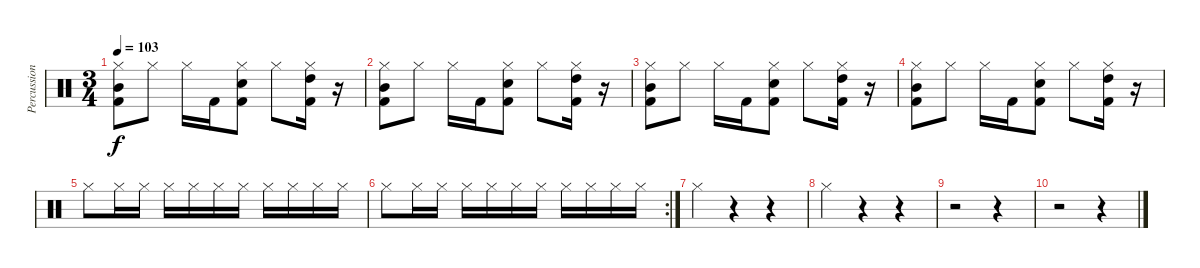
\track ("Percussion" "Percussion") {instrument percussion}
\staff {score}
\articulation defaults
\ts (3 4)
\tempo 103
\clef neutral
\ks c
("Hi-Hat (closed)" "Mid Tom (hit)" "Kick (hit) 2").8{dy f} "Hi-Hat (closed)".8 "Hi-Hat (closed)".16 "Kick (hit) 2".16 ("Hi-Hat (closed)" "Snare (hit) 2" "Kick (hit) 2").8 "Hi-Hat (closed)".8 ("Hi-Hat (closed)" "High Tom (hit)" "Kick (hit) 2").16 r.16 |
("Hi-Hat (closed)" "Mid Tom (hit)" "Kick (hit) 2").8 "Hi-Hat (closed)".8 "Hi-Hat (closed)".16 "Kick (hit) 2".16 ("Hi-Hat (closed)" "Snare (hit) 2" "Kick (hit) 2").8 "Hi-Hat (closed)".8 ("Hi-Hat (closed)" "High Tom (hit)" "Kick (hit) 2").16 r.16 |
("Hi-Hat (closed)" "Mid Tom (hit)" "Kick (hit) 2").8 "Hi-Hat (closed)".8 "Hi-Hat (closed)".16 "Kick (hit) 2".16 ("Hi-Hat (closed)" "Snare (hit) 2" "Kick (hit) 2").8 "Hi-Hat (closed)".8 ("Hi-Hat (closed)" "High Tom (hit)" "Kick (hit) 2").16 r.16 |
("Hi-Hat (closed)" "Mid Tom (hit)" "Kick (hit) 2").8 "Hi-Hat (closed)".8 "Hi-Hat (closed)".16 "Kick (hit) 2".16 ("Hi-Hat (closed)" "Snare (hit) 2" "Kick (hit) 2").8 "Hi-Hat (closed)".8 ("Hi-Hat (closed)" "High Tom (hit)" "Kick (hit) 2").16 r.16 |
"Hi-Hat (closed)".8 "Hi-Hat (closed)".16 "Hi-Hat (closed)".16 "Hi-Hat (closed)".16 "Hi-Hat (closed)".16 "Hi-Hat (closed)".16 "Hi-Hat (closed)".16 "Hi-Hat (closed)".16 "Hi-Hat (closed)".16 "Hi-Hat (closed)".16 "Hi-Hat (closed)".16 |
\rc 2 "Hi-Hat (closed)".8 "Hi-Hat (closed)".16 "Hi-Hat (closed)".16 "Hi-Hat (closed)".16 "Hi-Hat (closed)".16 "Hi-Hat (closed)".16 "Hi-Hat (closed)".16 "Hi-Hat (closed)".16 "Hi-Hat (closed)".16 "Hi-Hat (closed)".16 "Hi-Hat (closed)".16
|
"Hi-Hat (closed)".4 r.4 r.4 |
"Hi-Hat (closed)".4 r.4 r.4 |
r.2 r.4 |
r.2 r.4
